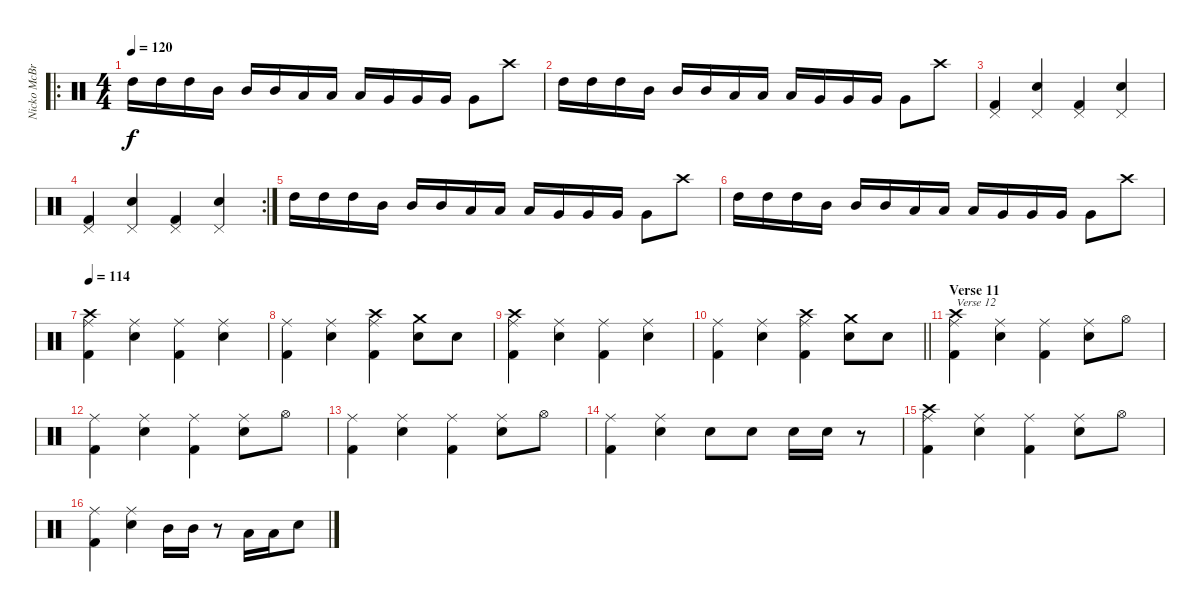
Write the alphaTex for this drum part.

\track ("Nicko McBrain" "Nicko McBr") {instrument percussion}
\staff {score}
\articulation defaults
\ro
\ts (4 4)
\tempo 120
\clef neutral
\ks c "High Tom (hit)".16{dy f} "High Tom (hit)".16 "High Tom (hit)".16 "Mid Tom (hit)".16 "Mid Tom (hit)".16 "Mid Tom (hit)".16 "Low Tom (hit)".16 "Low Tom (hit)".16 "Low Tom (hit)".16 "Very Low Tom (hit)".16 "Very Low Tom (hit)".16 "Very Low Tom (hit)".16 "Very Low Tom (hit)".8 "Crash high (hit)".8
|
"High Tom (hit)".16 "High Tom (hit)".16 "High Tom (hit)".16 "Mid Tom (hit)".16 "Mid Tom (hit)".16 "Mid Tom (hit)".16 "Low Tom (hit)".16 "Low Tom (hit)".16 "Low Tom (hit)".16 "Very Low Tom (hit)".16 "Very Low Tom (hit)".16 "Very Low Tom (hit)".16 "Very Low Tom (hit)".8 "Crash high (hit)".8 |
("Pedal Hi-Hat (hit)" "Kick (hit) 2").4 ("Pedal Hi-Hat (hit)" "Snare (hit) 2").4 ("Pedal Hi-Hat (hit)" "Kick (hit) 2").4 ("Pedal Hi-Hat (hit)" "Snare (hit) 2").4 |
\rc 2
("Pedal Hi-Hat (hit)" "Kick (hit) 2").4 ("Pedal Hi-Hat (hit)" "Snare (hit) 2").4 ("Pedal Hi-Hat (hit)" "Kick (hit) 2").4 ("Pedal Hi-Hat (hit)" "Snare (hit) 2").4 |
"High Tom (hit)".16 "High Tom (hit)".16 "High Tom (hit)".16 "Mid Tom (hit)".16 "Mid Tom (hit)".16 "Mid Tom (hit)".16 "Low Tom (hit)".16 "Low Tom (hit)".16 "Low Tom (hit)".16 "Very Low Tom (hit)".16 "Very Low Tom (hit)".16 "Very Low Tom (hit)".16 "Very Low Tom (hit)".8 "Crash high (hit)".8 |
"High Tom (hit)".16 "High Tom (hit)".16 "High Tom (hit)".16 "Mid Tom (hit)".16 "Mid Tom (hit)".16 "Mid Tom (hit)".16 "Low Tom (hit)".16 "Low Tom (hit)".16 "Low Tom (hit)".16 "Very Low Tom (hit)".16 "Very Low Tom (hit)".16 "Very Low Tom (hit)".16 "Very Low Tom (hit)".8 "Crash high (hit)".8 |
\tempo 114
("Ride (middle)" "Kick (hit) 2" "Crash high (hit)").4 ("Ride (middle)" "Snare (hit) 2").4 ("Ride (middle)" "Kick (hit) 2").4 ("Ride (middle)" "Snare (hit) 2").4 |
("Ride (middle)" "Kick (hit) 2").4 ("Ride (middle)" "Snare (hit) 2").4 ("Ride (middle)" "Kick (hit) 2" "Crash high (hit)").4 ("Snare (hit) 2" "Crash medium (hit)").8 "Snare (hit) 2".8 |
("Ride (middle)" "Kick (hit) 2" "Crash high (hit)").4 ("Ride (middle)" "Snare (hit) 2").4 ("Ride (middle)" "Kick (hit) 2").4 ("Ride (middle)" "Snare (hit) 2").4 |
\barLineRight lightlight
("Ride (middle)" "Kick (hit) 2").4 ("Ride (middle)" "Snare (hit) 2").4 ("Ride (middle)" "Kick (hit) 2" "Crash high (hit)").4 ("Snare (hit) 2" "Crash medium (hit)").8 "Snare (hit) 2".8 |
\section ("" "Verse 11")
("Ride (middle)" "Kick (hit) 2" "Crash high (hit)").4{txt "Verse 12"} ("Ride (middle)" "Snare (hit) 2").4 ("Ride (middle)" "Kick (hit) 2").4 ("Ride (middle)" "Snare (hit) 2").8 "Hi-Hat (open)".8 |
("Ride (middle)" "Kick (hit) 2").4 ("Ride (middle)" "Snare (hit) 2").4 ("Ride (middle)" "Kick (hit) 2").4 ("Ride (middle)" "Snare (hit) 2").8 "Hi-Hat (open)".8 |
("Ride (middle)" "Kick (hit) 2").4 ("Ride (middle)" "Snare (hit) 2").4 ("Ride (middle)" "Kick (hit) 2").4 ("Ride (middle)" "Snare (hit) 2").8 "Hi-Hat (open)".8 |
("Ride (middle)" "Kick (hit) 2").4 ("Ride (middle)" "Snare (hit) 2").4 "Snare (hit) 2".8 "Snare (hit) 2".8 "Snare (hit) 2".16 "Snare (hit) 2".16 r.8 |
("Ride (middle)" "Kick (hit) 2" "Crash high (hit)").4 ("Ride (middle)" "Snare (hit) 2").4 ("Ride (middle)" "Kick (hit) 2").4 ("Ride (middle)" "Snare (hit) 2").8 "Hi-Hat (open)".8 |
("Ride (middle)" "Kick (hit) 2").4 ("Ride (middle)" "Snare (hit) 2").4 "Mid Tom (hit)".16 "Mid Tom (hit)".16 r.8 "Low Tom (hit)".16 "Low Tom (hit)".16 "Snare (hit) 2".8
